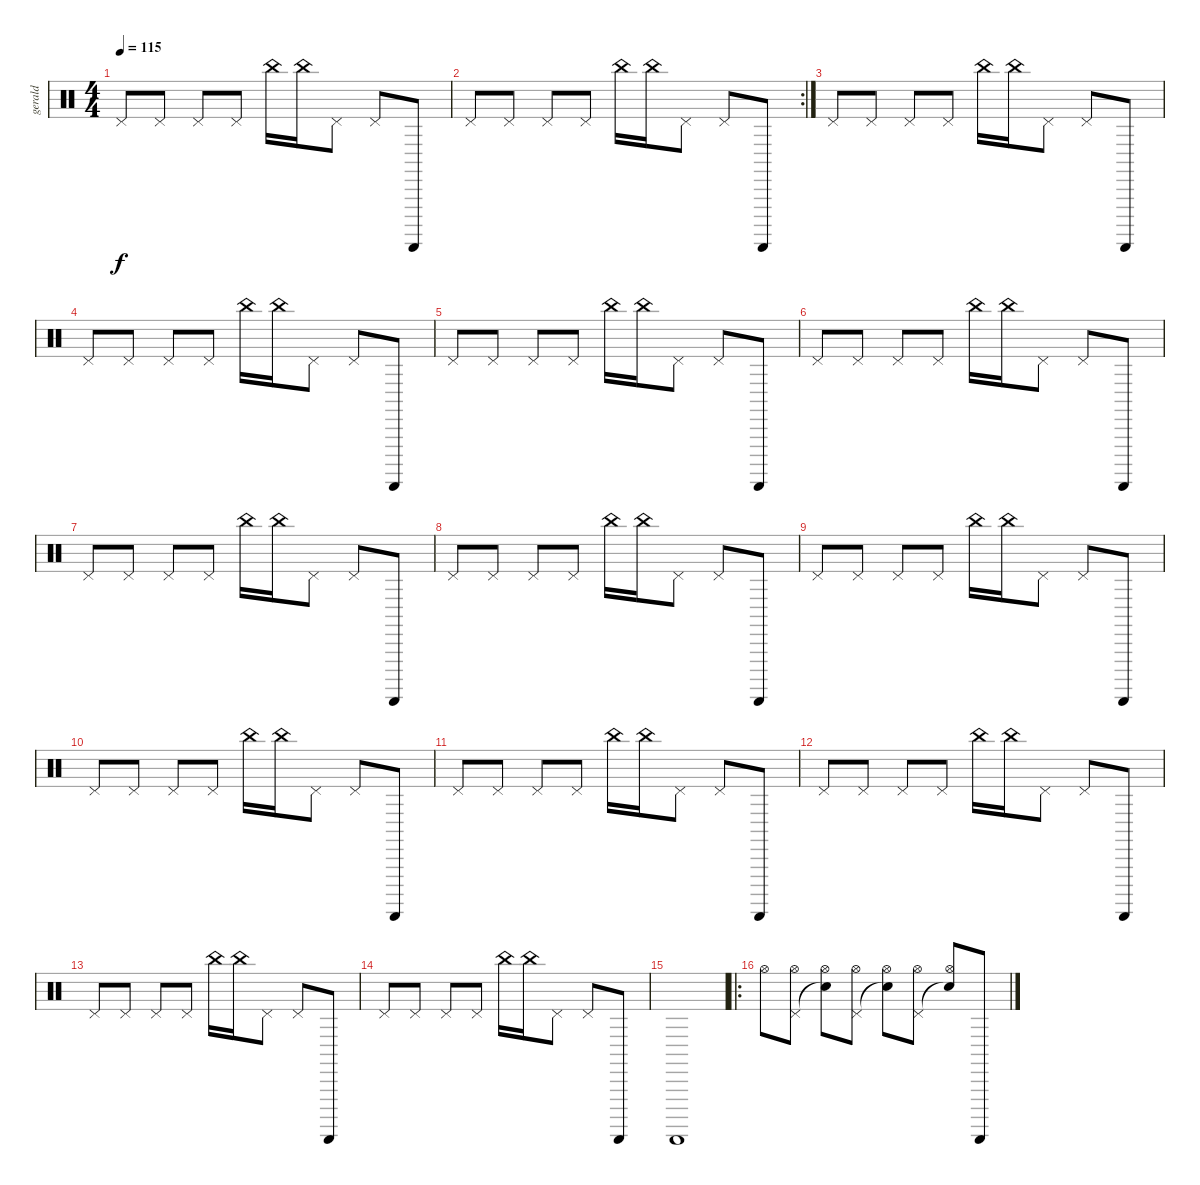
\track ("gerald" "gerald") {instrument percussion}
\staff {score}
\articulation defaults
\ts (4 4)
\tempo 115
\clef neutral
\ks c "Pedal Hi-Hat (hit)".8{dy f} "Pedal Hi-Hat (hit)".8 "Pedal Hi-Hat (hit)".8 "Pedal Hi-Hat (hit)".8 "China (hit)".16 "China (hit)".16 "Pedal Hi-Hat (hit)".8 "Pedal Hi-Hat (hit)".8 "Guiro (scrap-return)".8
|
\rc 2 "Pedal Hi-Hat (hit)".8 "Pedal Hi-Hat (hit)".8 "Pedal Hi-Hat (hit)".8 "Pedal Hi-Hat (hit)".8 "China (hit)".16 "China (hit)".16 "Pedal Hi-Hat (hit)".8 "Pedal Hi-Hat (hit)".8 "Guiro (scrap-return)".8
|
"Pedal Hi-Hat (hit)".8 "Pedal Hi-Hat (hit)".8 "Pedal Hi-Hat (hit)".8 "Pedal Hi-Hat (hit)".8 "China (hit)".16 "China (hit)".16 "Pedal Hi-Hat (hit)".8 "Pedal Hi-Hat (hit)".8 "Guiro (scrap-return)".8 |
"Pedal Hi-Hat (hit)".8 "Pedal Hi-Hat (hit)".8 "Pedal Hi-Hat (hit)".8 "Pedal Hi-Hat (hit)".8 "China (hit)".16 "China (hit)".16 "Pedal Hi-Hat (hit)".8 "Pedal Hi-Hat (hit)".8 "Guiro (scrap-return)".8 |
"Pedal Hi-Hat (hit)".8 "Pedal Hi-Hat (hit)".8 "Pedal Hi-Hat (hit)".8 "Pedal Hi-Hat (hit)".8 "China (hit)".16 "China (hit)".16 "Pedal Hi-Hat (hit)".8 "Pedal Hi-Hat (hit)".8 "Guiro (scrap-return)".8 |
"Pedal Hi-Hat (hit)".8 "Pedal Hi-Hat (hit)".8 "Pedal Hi-Hat (hit)".8 "Pedal Hi-Hat (hit)".8 "China (hit)".16 "China (hit)".16 "Pedal Hi-Hat (hit)".8 "Pedal Hi-Hat (hit)".8 "Guiro (scrap-return)".8 |
"Pedal Hi-Hat (hit)".8 "Pedal Hi-Hat (hit)".8 "Pedal Hi-Hat (hit)".8 "Pedal Hi-Hat (hit)".8 "China (hit)".16 "China (hit)".16 "Pedal Hi-Hat (hit)".8 "Pedal Hi-Hat (hit)".8 "Guiro (scrap-return)".8 |
"Pedal Hi-Hat (hit)".8 "Pedal Hi-Hat (hit)".8 "Pedal Hi-Hat (hit)".8 "Pedal Hi-Hat (hit)".8 "China (hit)".16 "China (hit)".16 "Pedal Hi-Hat (hit)".8 "Pedal Hi-Hat (hit)".8 "Guiro (scrap-return)".8 |
"Pedal Hi-Hat (hit)".8 "Pedal Hi-Hat (hit)".8 "Pedal Hi-Hat (hit)".8 "Pedal Hi-Hat (hit)".8 "China (hit)".16 "China (hit)".16 "Pedal Hi-Hat (hit)".8 "Pedal Hi-Hat (hit)".8 "Guiro (scrap-return)".8 |
"Pedal Hi-Hat (hit)".8 "Pedal Hi-Hat (hit)".8 "Pedal Hi-Hat (hit)".8 "Pedal Hi-Hat (hit)".8 "China (hit)".16 "China (hit)".16 "Pedal Hi-Hat (hit)".8 "Pedal Hi-Hat (hit)".8 "Guiro (scrap-return)".8 |
"Pedal Hi-Hat (hit)".8 "Pedal Hi-Hat (hit)".8 "Pedal Hi-Hat (hit)".8 "Pedal Hi-Hat (hit)".8 "China (hit)".16 "China (hit)".16 "Pedal Hi-Hat (hit)".8 "Pedal Hi-Hat (hit)".8 "Guiro (scrap-return)".8 |
"Pedal Hi-Hat (hit)".8 "Pedal Hi-Hat (hit)".8 "Pedal Hi-Hat (hit)".8 "Pedal Hi-Hat (hit)".8 "China (hit)".16 "China (hit)".16 "Pedal Hi-Hat (hit)".8 "Pedal Hi-Hat (hit)".8 "Guiro (scrap-return)".8 |
"Pedal Hi-Hat (hit)".8 "Pedal Hi-Hat (hit)".8 "Pedal Hi-Hat (hit)".8 "Pedal Hi-Hat (hit)".8 "China (hit)".16 "China (hit)".16 "Pedal Hi-Hat (hit)".8 "Pedal Hi-Hat (hit)".8 "Guiro (scrap-return)".8 |
"Pedal Hi-Hat (hit)".8 "Pedal Hi-Hat (hit)".8 "Pedal Hi-Hat (hit)".8 "Pedal Hi-Hat (hit)".8 "China (hit)".16 "China (hit)".16 "Pedal Hi-Hat (hit)".8 "Pedal Hi-Hat (hit)".8 "Guiro (scrap-return)".8 |
"Guiro (scrap-return)".1 |
\ro "Hi-Hat (open)".8
("Pedal Hi-Hat (hit)" "Hi-Hat (open)").8 ("Snare (hit)"{t} "Hi-Hat (open)").8 ("Pedal Hi-Hat (hit)" "Hi-Hat (open)").8 ("Snare (hit)"{t} "Hi-Hat (open)").8 ("Pedal Hi-Hat (hit)" "Hi-Hat (open)").8 ("Snare (hit)"{t} "Hi-Hat (open)").8 "Guiro (scrap-return)".8
